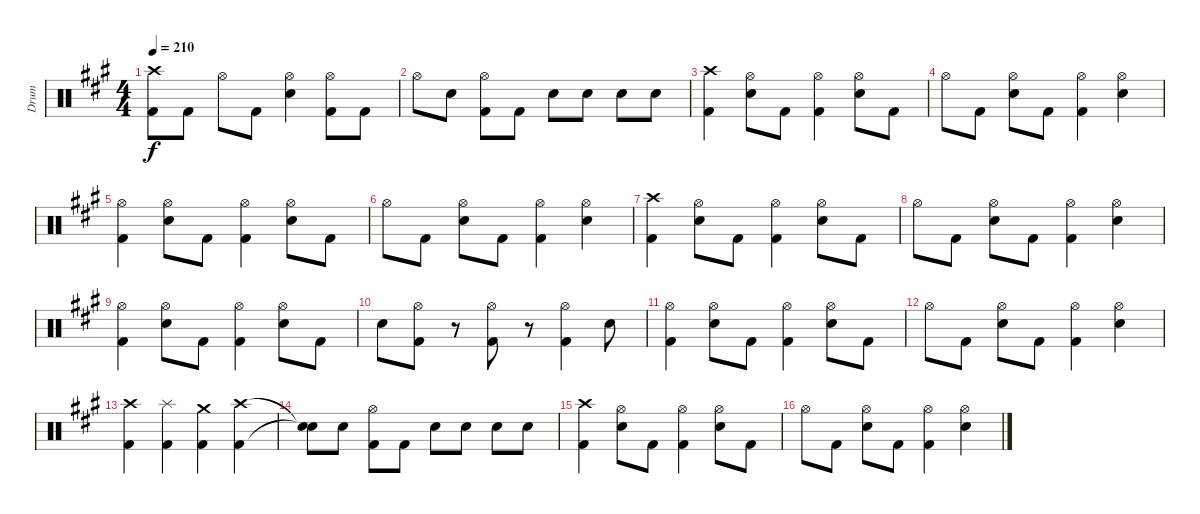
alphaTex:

\track ("Drum" "Drum") {instrument percussion}
\staff {score}
\articulation defaults
\ts (4 4)
\tempo 210
\clef neutral
\ks a
("Crash high (hit)" "Kick (hit) 2").8{dy f} "Kick (hit) 2".8 "Hi-Hat (open)".8 "Kick (hit) 2".8 ("Hi-Hat (open)" "Electric Snare (hit)").4 ("Hi-Hat (open)" "Kick (hit) 2").8 "Kick (hit) 2".8 |
"Hi-Hat (open)".8 "Electric Snare (hit)".8 ("Hi-Hat (open)" "Kick (hit) 2").8 "Kick (hit) 2".8 "Electric Snare (hit)".8 "Electric Snare (hit)".8 "Electric Snare (hit)".8 "Electric Snare (hit)".8 |
("Crash high (hit)" "Kick (hit) 2").4 ("Hi-Hat (open)" "Electric Snare (hit)").8 "Kick (hit) 2".8 ("Hi-Hat (open)" "Kick (hit) 2").4 ("Hi-Hat (open)" "Electric Snare (hit)").8 "Kick (hit) 2".8 |
"Hi-Hat (open)".8 "Kick (hit) 2".8 ("Hi-Hat (open)" "Electric Snare (hit)").8 "Kick (hit) 2".8 ("Hi-Hat (open)" "Kick (hit) 2").4 ("Hi-Hat (open)" "Electric Snare (hit)").4 |
("Hi-Hat (open)" "Kick (hit) 2").4 ("Hi-Hat (open)" "Electric Snare (hit)").8 "Kick (hit) 2".8 ("Hi-Hat (open)" "Kick (hit) 2").4 ("Hi-Hat (open)" "Electric Snare (hit)").8 "Kick (hit) 2".8 |
"Hi-Hat (open)".8 "Kick (hit) 2".8 ("Hi-Hat (open)" "Electric Snare (hit)").8 "Kick (hit) 2".8 ("Hi-Hat (open)" "Kick (hit) 2").4 ("Hi-Hat (open)" "Electric Snare (hit)").4 |
("Crash high (hit)" "Kick (hit) 2").4 ("Hi-Hat (open)" "Electric Snare (hit)").8 "Kick (hit) 2".8 ("Hi-Hat (open)" "Kick (hit) 2").4 ("Hi-Hat (open)" "Electric Snare (hit)").8 "Kick (hit) 2".8 |
"Hi-Hat (open)".8 "Kick (hit) 2".8 ("Hi-Hat (open)" "Electric Snare (hit)").8 "Kick (hit) 2".8 ("Hi-Hat (open)" "Kick (hit) 2").4 ("Hi-Hat (open)" "Electric Snare (hit)").4 |
("Hi-Hat (open)" "Kick (hit) 2").4 ("Hi-Hat (open)" "Electric Snare (hit)").8 "Kick (hit) 2".8 ("Hi-Hat (open)" "Kick (hit) 2").4 ("Hi-Hat (open)" "Electric Snare (hit)").8 "Kick (hit) 2".8 |
"Electric Snare (hit)".8 ("Hi-Hat (open)" "Kick (hit) 2").8 r.8 ("Hi-Hat (open)" "Kick (hit) 2").8 r.8 ("Hi-Hat (open)" "Kick (hit) 2").4 "Electric Snare (hit)".8 |
("Hi-Hat (open)" "Kick (hit) 2").4 ("Hi-Hat (open)" "Electric Snare (hit)").8 "Kick (hit) 2".8 ("Hi-Hat (open)" "Kick (hit) 2").4 ("Hi-Hat (open)" "Electric Snare (hit)").8 "Kick (hit) 2".8 |
"Hi-Hat (open)".8 "Kick (hit) 2".8 ("Hi-Hat (open)" "Electric Snare (hit)").8 "Kick (hit) 2".8 ("Hi-Hat (open)" "Kick (hit) 2").4 ("Hi-Hat (open)" "Electric Snare (hit)").4 |
("Crash high (hit)" "Kick (hit) 2").4 ("Splash (hit)" "Kick (hit) 2").4 ("Crash medium (hit)" "Kick (hit) 2").4 ("Crash high (hit)" "Kick (hit) 2").4 |
("Snare (hit)"{t} "Snare (hit)"{t}).8 "Electric Snare (hit)".8 ("Hi-Hat (open)" "Kick (hit) 2").8 "Kick (hit) 2".8 "Electric Snare (hit)".8 "Electric Snare (hit)".8 "Electric Snare (hit)".8 "Electric Snare (hit)".8 |
("Crash high (hit)" "Kick (hit) 2").4 ("Hi-Hat (open)" "Electric Snare (hit)").8 "Kick (hit) 2".8 ("Hi-Hat (open)" "Kick (hit) 2").4 ("Hi-Hat (open)" "Electric Snare (hit)").8 "Kick (hit) 2".8 |
"Hi-Hat (open)".8 "Kick (hit) 2".8 ("Hi-Hat (open)" "Electric Snare (hit)").8 "Kick (hit) 2".8 ("Hi-Hat (open)" "Kick (hit) 2").4 ("Hi-Hat (open)" "Electric Snare (hit)").4
